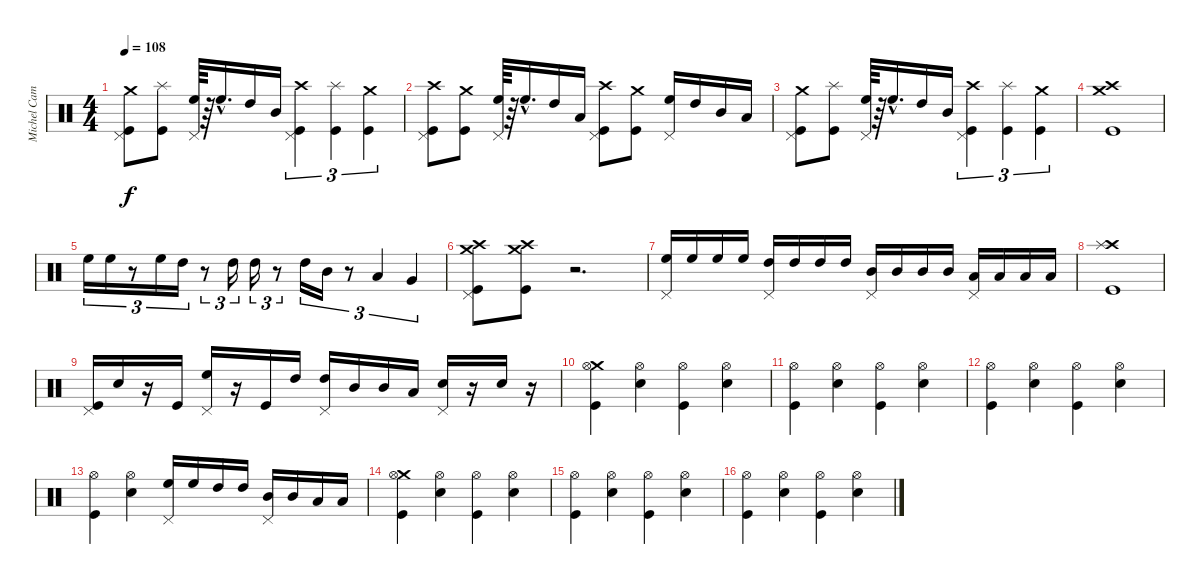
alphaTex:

\track ("Michel Camiade" "Michel Cam") {instrument percussion}
\staff {score}
\articulation defaults
\ts (4 4)
\tempo 108
\clef neutral
\ks c
("Crash medium (hit)" "Pedal Hi-Hat (hit)" "Kick (hit)").8{dy f} ("Splash (hit)" "Kick (hit)").8 ("High Floor Tom (hit)" "Pedal Hi-Hat (hit)").64 r.64 "High Floor Tom (hit)"{hac}.16{d} "High Tom (hit)".16 "Mid Tom (hit)".16 ("Crash high (hit)" "Pedal Hi-Hat (hit)" "Kick (hit)").4{tu (3 2)} ("Splash (hit)" "Kick (hit)").4{tu (3 2)} ("Crash medium (hit)" "Kick (hit)").4{tu (3 2)} |
("Crash high (hit)" "Pedal Hi-Hat (hit)" "Kick (hit)").8 ("Crash medium (hit)" "Kick (hit)").8 ("High Floor Tom (hit)" "Pedal Hi-Hat (hit)").64 r.64 "High Floor Tom (hit)"{hac}.16{d} "High Tom (hit)".16 "Low Tom (hit)".16 ("Crash high (hit)" "Pedal Hi-Hat (hit)" "Kick (hit)").8 ("Crash medium (hit)" "Kick (hit)").8 ("High Floor Tom (hit)" "Pedal Hi-Hat (hit)").16 "High Tom (hit)".16 "Mid Tom (hit)".16 "Low Tom (hit)".16 |
("Crash medium (hit)" "Pedal Hi-Hat (hit)" "Kick (hit)").8 ("Splash (hit)" "Kick (hit)").8 ("High Floor Tom (hit)" "Pedal Hi-Hat (hit)").64 r.64 "High Floor Tom (hit)"{hac}.16{d} "High Tom (hit)".16 "Mid Tom (hit)".16 ("Crash high (hit)" "Pedal Hi-Hat (hit)" "Kick (hit)").4{tu (3 2)} ("Splash (hit)" "Kick (hit)").4{tu (3 2)} ("Crash medium (hit)" "Kick (hit)").4{tu (3 2)} |
("Crash medium (hit)" "Crash high (hit)" "Kick (hit)").1 |
"High Floor Tom (hit)".16{tu (3 2)} "High Floor Tom (hit)".16{tu (3 2)} r.8{tu (3 2)} "High Floor Tom (hit)".16{tu (3 2)} "High Tom (hit)".16{tu (3 2)} r.8{tu (3 2)} "High Tom (hit)".16{tu (3 2)} "High Tom (hit)".16{tu (3 2)} r.8{tu (3 2)} "High Tom (hit)".16{tu (3 2)} "Mid Tom (hit)".16{tu (3 2)} r.8{tu (3 2)} "Low Tom (hit)".4{tu (3 2)} "Very Low Tom (hit)".4{tu (3 2)} |
("Crash high (hit)" "Crash medium (hit)" "Pedal Hi-Hat (hit)" "Kick (hit)").8 ("Crash high (hit)" "Crash medium (hit)" "Kick (hit)").8 r.2{d} |
("High Floor Tom (hit)" "Pedal Hi-Hat (hit)").16 "High Floor Tom (hit)".16 "High Floor Tom (hit)".16 "High Floor Tom (hit)".16 ("High Tom (hit)" "Pedal Hi-Hat (hit)").16 "High Tom (hit)".16 "High Tom (hit)".16 "High Tom (hit)".16 ("Mid Tom (hit)" "Pedal Hi-Hat (hit)").16 "Mid Tom (hit)".16 "Mid Tom (hit)".16 "Mid Tom (hit)".16 ("Low Tom (hit)" "Pedal Hi-Hat (hit)").16 "Low Tom (hit)".16 "Low Tom (hit)".16 "Low Tom (hit)".16 |
("Crash high (hit)" "Splash (hit)" "Kick (hit)").1 |
("Pedal Hi-Hat (hit)" "Kick (hit)").16 "Snare (hit) 2".16 r.16 "Kick (hit)".16 ("High Floor Tom (hit)" "Pedal Hi-Hat (hit)").16 r.16 "Kick (hit)".16 "High Tom (hit)".16 ("High Tom (hit)" "Pedal Hi-Hat (hit)").16 "Mid Tom (hit)".16 "Mid Tom (hit)".16 "Low Tom (hit)".16 ("Pedal Hi-Hat (hit)" "Snare (hit) 2").16 r.16 "Snare (hit) 2".16 r.16 |
("Crash medium (hit)" "Hi-Hat (open)" "Kick (hit)").4 ("Hi-Hat (open)" "Snare (hit) 2").4 ("Hi-Hat (open)" "Kick (hit)").4 ("Hi-Hat (open)" "Snare (hit) 2").4 |
("Hi-Hat (open)" "Kick (hit)").4 ("Hi-Hat (open)" "Snare (hit) 2").4 ("Hi-Hat (open)" "Kick (hit)").4 ("Hi-Hat (open)" "Snare (hit) 2").4 |
("Hi-Hat (open)" "Kick (hit)").4 ("Hi-Hat (open)" "Snare (hit) 2").4 ("Hi-Hat (open)" "Kick (hit)").4 ("Hi-Hat (open)" "Snare (hit) 2").4 |
("Hi-Hat (open)" "Kick (hit)").4 ("Hi-Hat (open)" "Snare (hit) 2").4 ("High Floor Tom (hit)" "Pedal Hi-Hat (hit)").16 "High Floor Tom (hit)".16 "High Tom (hit)".16 "High Tom (hit)".16 ("Mid Tom (hit)" "Pedal Hi-Hat (hit)").16 "Mid Tom (hit)".16 "Low Tom (hit)".16 "Low Tom (hit)".16 |
("Crash medium (hit)" "Hi-Hat (open)" "Kick (hit)").4 ("Hi-Hat (open)" "Snare (hit) 2").4 ("Hi-Hat (open)" "Kick (hit)").4 ("Hi-Hat (open)" "Snare (hit) 2").4 |
("Hi-Hat (open)" "Kick (hit)").4 ("Hi-Hat (open)" "Snare (hit) 2").4 ("Hi-Hat (open)" "Kick (hit)").4 ("Hi-Hat (open)" "Snare (hit) 2").4 |
("Hi-Hat (open)" "Kick (hit)").4 ("Hi-Hat (open)" "Snare (hit) 2").4 ("Hi-Hat (open)" "Kick (hit)").4 ("Hi-Hat (open)" "Snare (hit) 2").4
